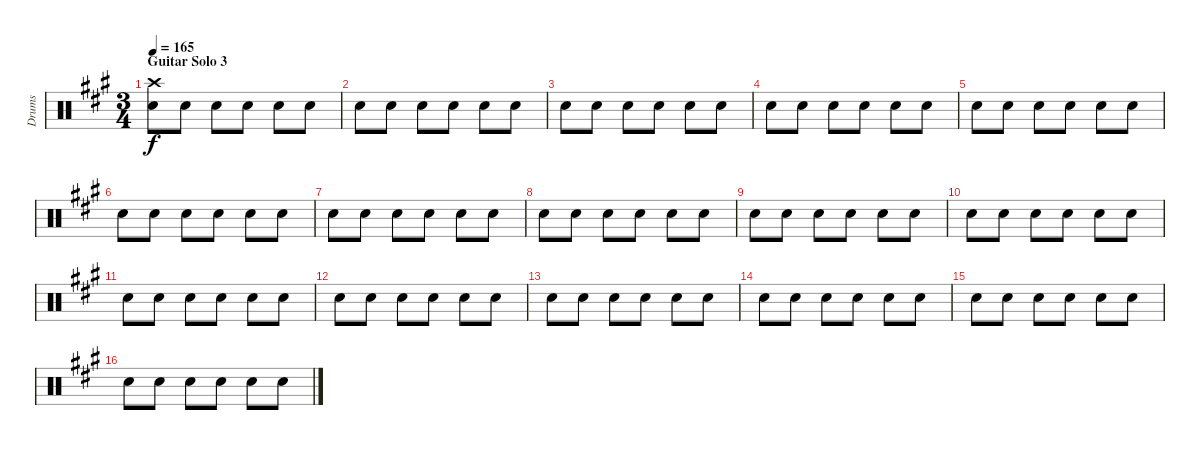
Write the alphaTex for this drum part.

\track ("Drums" "Drums") {instrument percussion}
\staff {score}
\articulation defaults
\ts (3 4)
\section ("" "Guitar Solo 3")
\tempo 165
\clef neutral
\ks a
("Crash high (hit)" "Snare (hit) 2").8{dy f} "Snare (hit) 2".8 "Snare (hit) 2".8 "Snare (hit) 2".8 "Snare (hit) 2".8 "Snare (hit) 2".8 |
"Snare (hit) 2".8 "Snare (hit) 2".8 "Snare (hit) 2".8 "Snare (hit) 2".8 "Snare (hit) 2".8 "Snare (hit) 2".8 |
"Snare (hit) 2".8 "Snare (hit) 2".8 "Snare (hit) 2".8 "Snare (hit) 2".8 "Snare (hit) 2".8 "Snare (hit) 2".8 |
"Snare (hit) 2".8 "Snare (hit) 2".8 "Snare (hit) 2".8 "Snare (hit) 2".8 "Snare (hit) 2".8 "Snare (hit) 2".8 |
"Snare (hit) 2".8 "Snare (hit) 2".8 "Snare (hit) 2".8 "Snare (hit) 2".8 "Snare (hit) 2".8 "Snare (hit) 2".8 |
"Snare (hit) 2".8 "Snare (hit) 2".8 "Snare (hit) 2".8 "Snare (hit) 2".8 "Snare (hit) 2".8 "Snare (hit) 2".8 |
"Snare (hit) 2".8 "Snare (hit) 2".8 "Snare (hit) 2".8 "Snare (hit) 2".8 "Snare (hit) 2".8 "Snare (hit) 2".8 |
"Snare (hit) 2".8 "Snare (hit) 2".8 "Snare (hit) 2".8 "Snare (hit) 2".8 "Snare (hit) 2".8 "Snare (hit) 2".8 |
"Snare (hit) 2".8 "Snare (hit) 2".8 "Snare (hit) 2".8 "Snare (hit) 2".8 "Snare (hit) 2".8 "Snare (hit) 2".8 |
"Snare (hit) 2".8 "Snare (hit) 2".8 "Snare (hit) 2".8 "Snare (hit) 2".8 "Snare (hit) 2".8 "Snare (hit) 2".8 |
"Snare (hit) 2".8 "Snare (hit) 2".8 "Snare (hit) 2".8 "Snare (hit) 2".8 "Snare (hit) 2".8 "Snare (hit) 2".8 |
"Snare (hit) 2".8 "Snare (hit) 2".8 "Snare (hit) 2".8 "Snare (hit) 2".8 "Snare (hit) 2".8 "Snare (hit) 2".8 |
"Snare (hit) 2".8 "Snare (hit) 2".8 "Snare (hit) 2".8 "Snare (hit) 2".8 "Snare (hit) 2".8 "Snare (hit) 2".8 |
"Snare (hit) 2".8 "Snare (hit) 2".8 "Snare (hit) 2".8 "Snare (hit) 2".8 "Snare (hit) 2".8 "Snare (hit) 2".8 |
"Snare (hit) 2".8 "Snare (hit) 2".8 "Snare (hit) 2".8 "Snare (hit) 2".8 "Snare (hit) 2".8 "Snare (hit) 2".8 |
"Snare (hit) 2".8 "Snare (hit) 2".8 "Snare (hit) 2".8 "Snare (hit) 2".8 "Snare (hit) 2".8 "Snare (hit) 2".8
